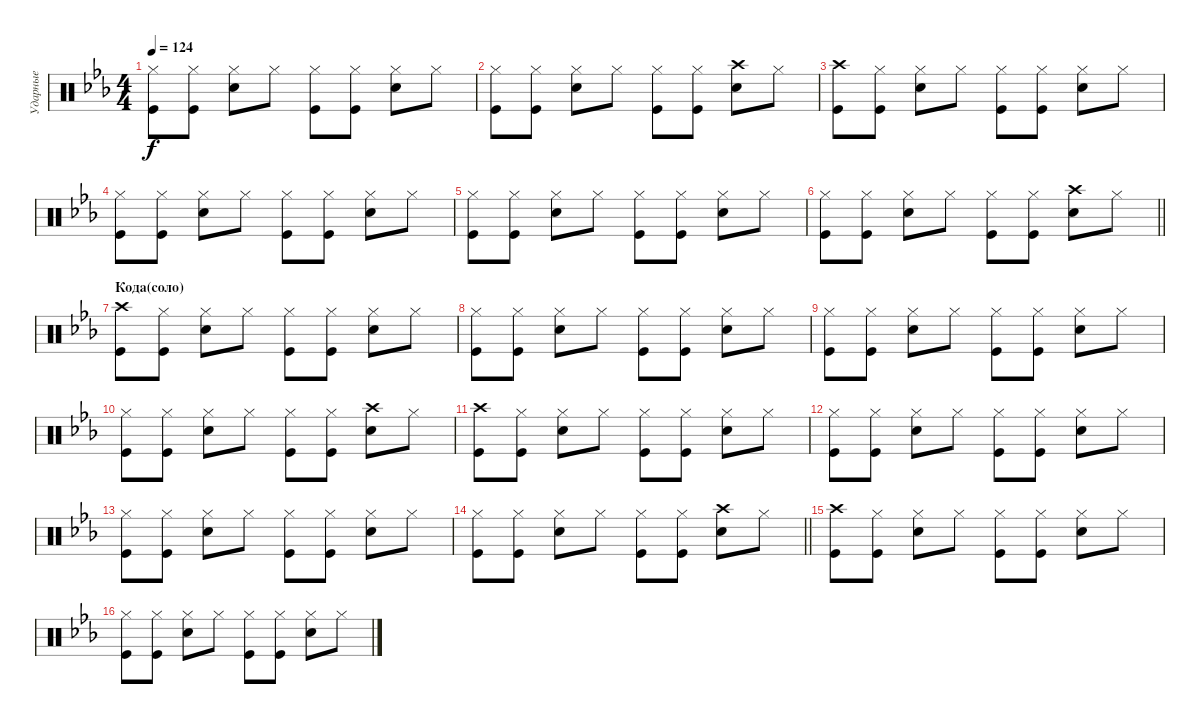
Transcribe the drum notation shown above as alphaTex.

\track ("Ударные" "Ударные") {instrument percussion}
\staff {score}
\articulation defaults
\ts (4 4)
\tempo 124
\clef neutral
\ks cminor
("Hi-Hat (closed)" "Kick (hit)").8{dy f} ("Hi-Hat (closed)" "Kick (hit)").8 ("Hi-Hat (closed)" "Snare (hit) 2").8 "Hi-Hat (closed)".8 ("Hi-Hat (closed)" "Kick (hit)").8 ("Kick (hit)" "Hi-Hat (closed)").8 ("Hi-Hat (closed)" "Snare (hit) 2").8 "Hi-Hat (closed)".8 |
("Hi-Hat (closed)" "Kick (hit)").8 ("Hi-Hat (closed)" "Kick (hit)").8 ("Hi-Hat (closed)" "Snare (hit) 2").8 "Hi-Hat (closed)".8 ("Hi-Hat (closed)" "Kick (hit)").8 ("Kick (hit)" "Hi-Hat (closed)").8 ("Snare (hit) 2" "Crash high (hit)").8 "Hi-Hat (closed)".8 |
("Crash high (hit)" "Kick (hit)").8 ("Kick (hit)" "Hi-Hat (closed)").8 ("Hi-Hat (closed)" "Snare (hit) 2").8 "Hi-Hat (closed)".8 ("Hi-Hat (closed)" "Kick (hit)").8 ("Kick (hit)" "Hi-Hat (closed)").8 ("Hi-Hat (closed)" "Snare (hit) 2").8 "Hi-Hat (closed)".8 |
("Hi-Hat (closed)" "Kick (hit)").8 ("Hi-Hat (closed)" "Kick (hit)").8 ("Hi-Hat (closed)" "Snare (hit) 2").8 "Hi-Hat (closed)".8 ("Hi-Hat (closed)" "Kick (hit)").8 ("Kick (hit)" "Hi-Hat (closed)").8 ("Hi-Hat (closed)" "Snare (hit) 2").8 "Hi-Hat (closed)".8 |
("Hi-Hat (closed)" "Kick (hit)").8 ("Hi-Hat (closed)" "Kick (hit)").8 ("Hi-Hat (closed)" "Snare (hit) 2").8 "Hi-Hat (closed)".8 ("Hi-Hat (closed)" "Kick (hit)").8 ("Kick (hit)" "Hi-Hat (closed)").8 ("Hi-Hat (closed)" "Snare (hit) 2").8 "Hi-Hat (closed)".8 |
\barLineRight lightlight
("Hi-Hat (closed)" "Kick (hit)").8 ("Hi-Hat (closed)" "Kick (hit)").8 ("Hi-Hat (closed)" "Snare (hit) 2").8 "Hi-Hat (closed)".8 ("Hi-Hat (closed)" "Kick (hit)").8 ("Kick (hit)" "Hi-Hat (closed)").8 ("Snare (hit) 2" "Crash high (hit)").8 "Hi-Hat (closed)".8 |
\section ("" "Кода(соло)")
("Crash high (hit)" "Kick (hit)").8 ("Kick (hit)" "Hi-Hat (closed)").8 ("Hi-Hat (closed)" "Snare (hit) 2").8 "Hi-Hat (closed)".8 ("Hi-Hat (closed)" "Kick (hit)").8 ("Kick (hit)" "Hi-Hat (closed)").8 ("Hi-Hat (closed)" "Snare (hit) 2").8 "Hi-Hat (closed)".8 |
("Hi-Hat (closed)" "Kick (hit)").8 ("Hi-Hat (closed)" "Kick (hit)").8 ("Hi-Hat (closed)" "Snare (hit) 2").8 "Hi-Hat (closed)".8 ("Hi-Hat (closed)" "Kick (hit)").8 ("Kick (hit)" "Hi-Hat (closed)").8 ("Hi-Hat (closed)" "Snare (hit) 2").8 "Hi-Hat (closed)".8 |
("Hi-Hat (closed)" "Kick (hit)").8 ("Hi-Hat (closed)" "Kick (hit)").8 ("Hi-Hat (closed)" "Snare (hit) 2").8 "Hi-Hat (closed)".8 ("Hi-Hat (closed)" "Kick (hit)").8 ("Kick (hit)" "Hi-Hat (closed)").8 ("Hi-Hat (closed)" "Snare (hit) 2").8 "Hi-Hat (closed)".8 |
("Hi-Hat (closed)" "Kick (hit)").8 ("Hi-Hat (closed)" "Kick (hit)").8 ("Hi-Hat (closed)" "Snare (hit) 2").8 "Hi-Hat (closed)".8 ("Hi-Hat (closed)" "Kick (hit)").8 ("Kick (hit)" "Hi-Hat (closed)").8 ("Snare (hit) 2" "Crash high (hit)").8 "Hi-Hat (closed)".8 |
("Crash high (hit)" "Kick (hit)").8 ("Kick (hit)" "Hi-Hat (closed)").8 ("Hi-Hat (closed)" "Snare (hit) 2").8 "Hi-Hat (closed)".8 ("Hi-Hat (closed)" "Kick (hit)").8 ("Kick (hit)" "Hi-Hat (closed)").8 ("Hi-Hat (closed)" "Snare (hit) 2").8 "Hi-Hat (closed)".8 |
("Hi-Hat (closed)" "Kick (hit)").8 ("Hi-Hat (closed)" "Kick (hit)").8 ("Hi-Hat (closed)" "Snare (hit) 2").8 "Hi-Hat (closed)".8 ("Hi-Hat (closed)" "Kick (hit)").8 ("Kick (hit)" "Hi-Hat (closed)").8 ("Hi-Hat (closed)" "Snare (hit) 2").8 "Hi-Hat (closed)".8 |
("Hi-Hat (closed)" "Kick (hit)").8 ("Hi-Hat (closed)" "Kick (hit)").8 ("Hi-Hat (closed)" "Snare (hit) 2").8 "Hi-Hat (closed)".8 ("Hi-Hat (closed)" "Kick (hit)").8 ("Kick (hit)" "Hi-Hat (closed)").8 ("Hi-Hat (closed)" "Snare (hit) 2").8 "Hi-Hat (closed)".8 |
\barLineRight lightlight
("Hi-Hat (closed)" "Kick (hit)").8 ("Hi-Hat (closed)" "Kick (hit)").8 ("Hi-Hat (closed)" "Snare (hit) 2").8 "Hi-Hat (closed)".8 ("Hi-Hat (closed)" "Kick (hit)").8 ("Kick (hit)" "Hi-Hat (closed)").8 ("Snare (hit) 2" "Crash high (hit)").8 "Hi-Hat (closed)".8 |
("Crash high (hit)" "Kick (hit)").8 ("Kick (hit)" "Hi-Hat (closed)").8 ("Hi-Hat (closed)" "Snare (hit) 2").8 "Hi-Hat (closed)".8 ("Hi-Hat (closed)" "Kick (hit)").8 ("Kick (hit)" "Hi-Hat (closed)").8 ("Hi-Hat (closed)" "Snare (hit) 2").8 "Hi-Hat (closed)".8 |
("Hi-Hat (closed)" "Kick (hit)").8 ("Hi-Hat (closed)" "Kick (hit)").8 ("Hi-Hat (closed)" "Snare (hit) 2").8 "Hi-Hat (closed)".8 ("Hi-Hat (closed)" "Kick (hit)").8 ("Kick (hit)" "Hi-Hat (closed)").8 ("Hi-Hat (closed)" "Snare (hit) 2").8 "Hi-Hat (closed)".8
